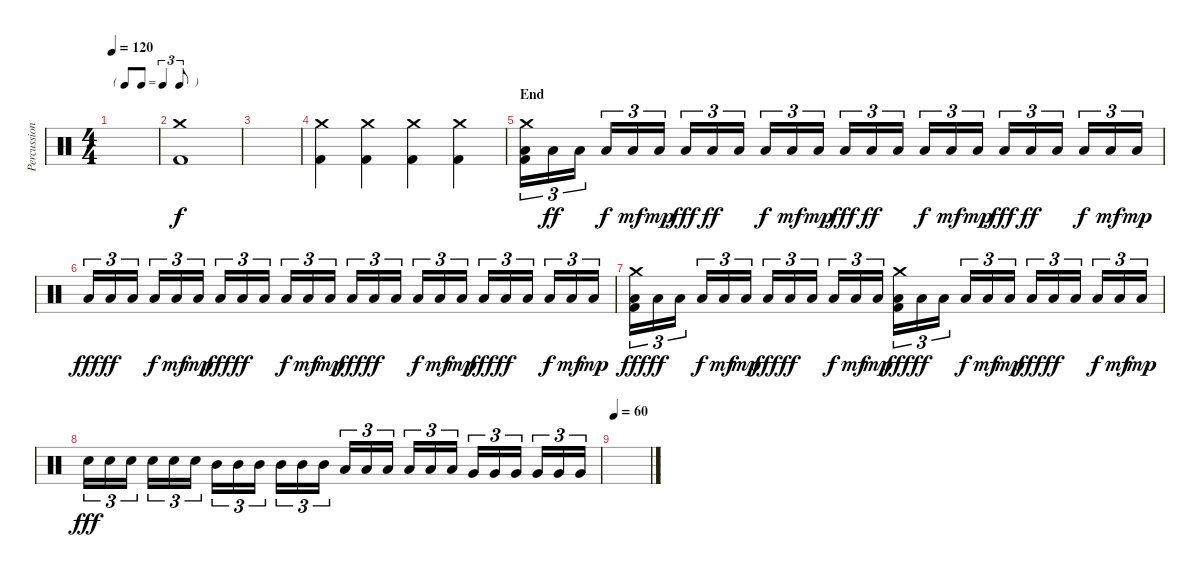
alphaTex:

\track ("Percussion" "Percussion") {instrument percussion}
\staff {score}
\articulation defaults
\ts (4 4)
\tf triplet8th
\tempo 120
\clef neutral
\ks c
|
("Crash medium (hit)" "Kick (hit) 2").1 |
|
("Crash medium (hit)" "Kick (hit) 2").4 ("Crash medium (hit)" "Kick (hit) 2").4 ("Crash medium (hit)" "Kick (hit) 2").4 ("Crash medium (hit)" "Kick (hit) 2").4 |
\section ("" "End")
("Crash medium (hit)" "Low Floor Tom (hit)" "Kick (hit) 2").16{tu (3 2)} "Low Floor Tom (hit)".16{tu (3 2) dy ff} "Low Floor Tom (hit)".16{tu (3 2)} "Low Floor Tom (hit)".16{tu (3 2) dy f} "Low Floor Tom (hit)".16{tu (3 2) dy mf} "Low Floor Tom (hit)".16{tu (3 2) dy mp} "Low Floor Tom (hit)".16{tu (3 2) dy fff} "Low Floor Tom (hit)".16{tu (3 2) dy ff} "Low Floor Tom (hit)".16{tu (3 2)} "Low Floor Tom (hit)".16{tu (3 2) dy f} "Low Floor Tom (hit)".16{tu (3 2) dy mf} "Low Floor Tom (hit)".16{tu (3 2) dy mp} "Low Floor Tom (hit)".16{tu (3 2) dy fff} "Low Floor Tom (hit)".16{tu (3 2) dy ff} "Low Floor Tom (hit)".16{tu (3 2)} "Low Floor Tom (hit)".16{tu (3 2) dy f} "Low Floor Tom (hit)".16{tu (3 2) dy mf} "Low Floor Tom (hit)".16{tu (3 2) dy mp} "Low Floor Tom (hit)".16{tu (3 2) dy fff} "Low Floor Tom (hit)".16{tu (3 2) dy ff} "Low Floor Tom (hit)".16{tu (3 2)} "Low Floor Tom (hit)".16{tu (3 2) dy f} "Low Floor Tom (hit)".16{tu (3 2) dy mf} "Low Floor Tom (hit)".16{tu (3 2) dy mp} |
"Low Floor Tom (hit)".16{tu (3 2) dy fff} "Low Floor Tom (hit)".16{tu (3 2) dy ff} "Low Floor Tom (hit)".16{tu (3 2)} "Low Floor Tom (hit)".16{tu (3 2) dy f} "Low Floor Tom (hit)".16{tu (3 2) dy mf} "Low Floor Tom (hit)".16{tu (3 2) dy mp} "Low Floor Tom (hit)".16{tu (3 2) dy fff} "Low Floor Tom (hit)".16{tu (3 2) dy ff} "Low Floor Tom (hit)".16{tu (3 2)} "Low Floor Tom (hit)".16{tu (3 2) dy f} "Low Floor Tom (hit)".16{tu (3 2) dy mf} "Low Floor Tom (hit)".16{tu (3 2) dy mp} "Low Floor Tom (hit)".16{tu (3 2) dy fff} "Low Floor Tom (hit)".16{tu (3 2) dy ff} "Low Floor Tom (hit)".16{tu (3 2)} "Low Floor Tom (hit)".16{tu (3 2) dy f} "Low Floor Tom (hit)".16{tu (3 2) dy mf} "Low Floor Tom (hit)".16{tu (3 2) dy mp} "Low Floor Tom (hit)".16{tu (3 2) dy fff} "Low Floor Tom (hit)".16{tu (3 2) dy ff} "Low Floor Tom (hit)".16{tu (3 2)} "Low Floor Tom (hit)".16{tu (3 2) dy f} "Low Floor Tom (hit)".16{tu (3 2) dy mf} "Low Floor Tom (hit)".16{tu (3 2) dy mp} |
("Crash medium (hit)" "Low Floor Tom (hit)" "Kick (hit) 2").16{tu (3 2) dy fff} "Low Floor Tom (hit)".16{tu (3 2) dy ff} "Low Floor Tom (hit)".16{tu (3 2)} "Low Floor Tom (hit)".16{tu (3 2) dy f} "Low Floor Tom (hit)".16{tu (3 2) dy mf} "Low Floor Tom (hit)".16{tu (3 2) dy mp} "Low Floor Tom (hit)".16{tu (3 2) dy fff} "Low Floor Tom (hit)".16{tu (3 2) dy ff} "Low Floor Tom (hit)".16{tu (3 2)} "Low Floor Tom (hit)".16{tu (3 2) dy f} "Low Floor Tom (hit)".16{tu (3 2) dy mf} "Low Floor Tom (hit)".16{tu (3 2) dy mp} ("Crash medium (hit)" "Low Floor Tom (hit)" "Kick (hit) 2").16{tu (3 2) dy fff} "Low Floor Tom (hit)".16{tu (3 2) dy ff} "Low Floor Tom (hit)".16{tu (3 2)} "Low Floor Tom (hit)".16{tu (3 2) dy f} "Low Floor Tom (hit)".16{tu (3 2) dy mf} "Low Floor Tom (hit)".16{tu (3 2) dy mp} "Low Floor Tom (hit)".16{tu (3 2) dy fff} "Low Floor Tom (hit)".16{tu (3 2) dy ff} "Low Floor Tom (hit)".16{tu (3 2)} "Low Floor Tom (hit)".16{tu (3 2) dy f} "Low Floor Tom (hit)".16{tu (3 2) dy mf} "Low Floor Tom (hit)".16{tu (3 2) dy mp} |
"Electric Snare (hit)".16{tu (3 2) dy fff} "Electric Snare (hit)".16{tu (3 2)} "Electric Snare (hit)".16{tu (3 2)} "Electric Snare (hit)".16{tu (3 2)} "Electric Snare (hit)".16{tu (3 2)} "Electric Snare (hit)".16{tu (3 2)} "Mid Tom (hit)".16{tu (3 2)} "Mid Tom (hit)".16{tu (3 2)} "Mid Tom (hit)".16{tu (3 2)} "Mid Tom (hit)".16{tu (3 2)} "Mid Tom (hit)".16{tu (3 2)} "Mid Tom (hit)".16{tu (3 2)} "Low Tom (hit)".16{tu (3 2)} "Low Tom (hit)".16{tu (3 2)} "Low Tom (hit)".16{tu (3 2)} "Low Tom (hit)".16{tu (3 2)} "Low Tom (hit)".16{tu (3 2)} "Low Tom (hit)".16{tu (3 2)} "Very Low Tom (hit)".16{tu (3 2)} "Very Low Tom (hit)".16{tu (3 2)} "Very Low Tom (hit)".16{tu (3 2)} "Very Low Tom (hit)".16{tu (3 2)} "Very Low Tom (hit)".16{tu (3 2)} "Very Low Tom (hit)".16{tu (3 2)} |
\tempo 60
